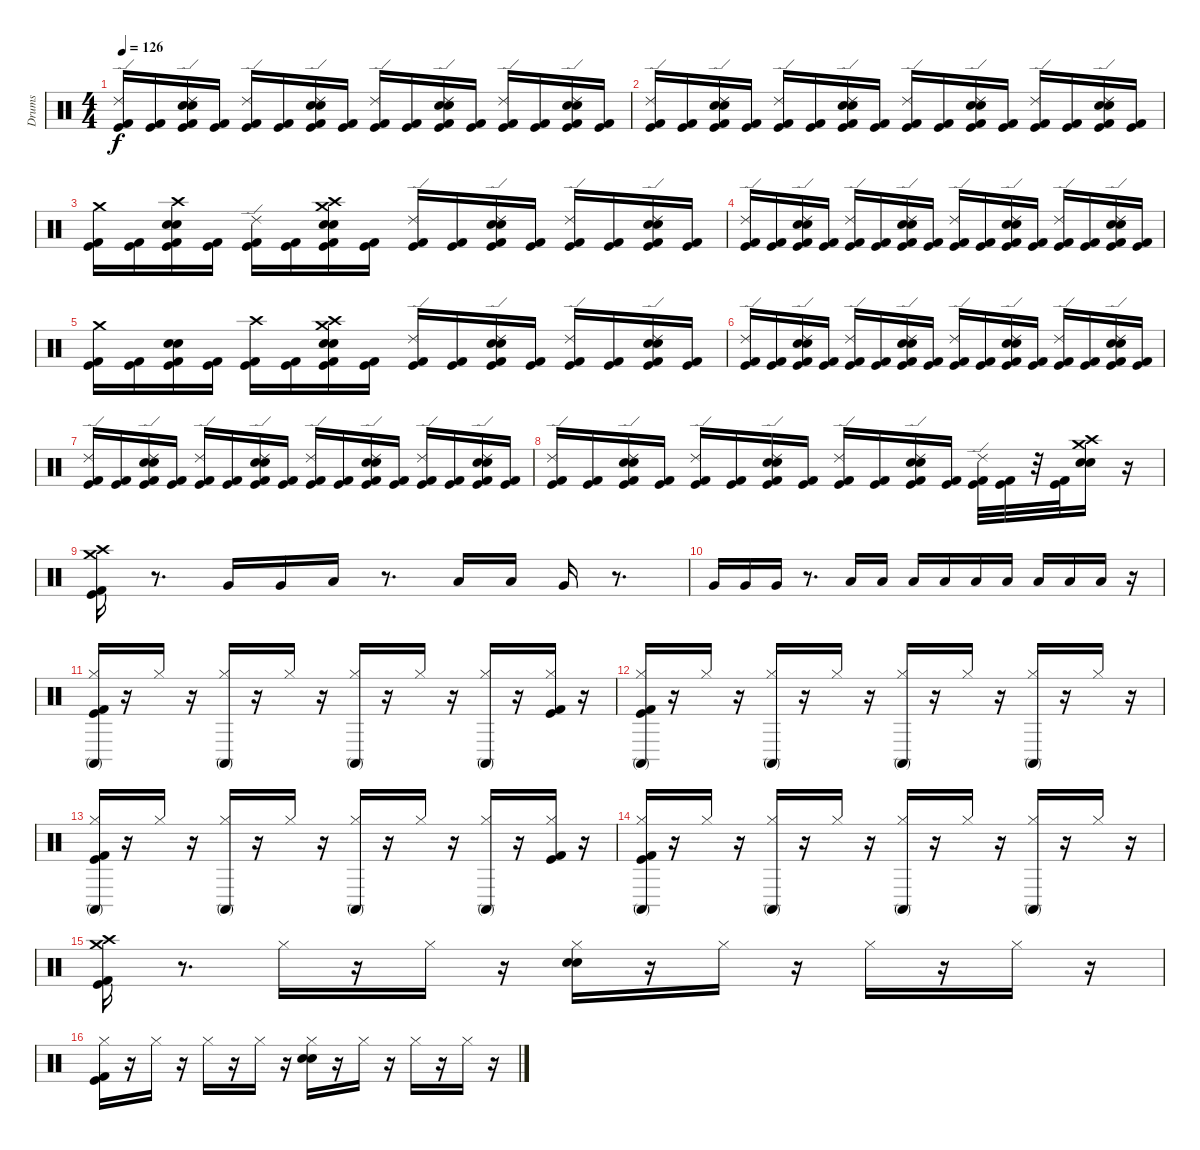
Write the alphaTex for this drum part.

\track ("Drums" "Drums") {instrument percussion}
\staff {score}
\articulation defaults
\ts (4 4)
\tempo 126
\clef neutral
\ks c
("Ride (edge) 2" "Kick (hit) 2" "Kick (hit)").16{dy f} ("Kick (hit) 2" "Kick (hit)").16 ("Electric Snare (hit)" "Snare (hit) 2" "Ride (edge) 2" "Kick (hit) 2" "Kick (hit)").16 ("Kick (hit) 2" "Kick (hit)").16 ("Ride (edge) 2" "Kick (hit) 2" "Kick (hit)").16 ("Kick (hit) 2" "Kick (hit)").16 ("Electric Snare (hit)" "Snare (hit) 2" "Ride (edge) 2" "Kick (hit) 2" "Kick (hit)").16 ("Kick (hit) 2" "Kick (hit)").16 ("Ride (edge) 2" "Kick (hit) 2" "Kick (hit)").16 ("Kick (hit) 2" "Kick (hit)").16 ("Electric Snare (hit)" "Snare (hit) 2" "Ride (edge) 2" "Kick (hit) 2" "Kick (hit)").16 ("Kick (hit) 2" "Kick (hit)").16 ("Ride (edge) 2" "Kick (hit) 2" "Kick (hit)").16 ("Kick (hit) 2" "Kick (hit)").16 ("Electric Snare (hit)" "Snare (hit) 2" "Ride (edge) 2" "Kick (hit) 2" "Kick (hit)").16 ("Kick (hit) 2" "Kick (hit)").16 |
("Ride (edge) 2" "Kick (hit) 2" "Kick (hit)").16 ("Kick (hit) 2" "Kick (hit)").16 ("Electric Snare (hit)" "Snare (hit) 2" "Ride (edge) 2" "Kick (hit) 2" "Kick (hit)").16 ("Kick (hit) 2" "Kick (hit)").16 ("Ride (edge) 2" "Kick (hit) 2" "Kick (hit)").16 ("Kick (hit) 2" "Kick (hit)").16 ("Electric Snare (hit)" "Snare (hit) 2" "Ride (edge) 2" "Kick (hit) 2" "Kick (hit)").16 ("Kick (hit) 2" "Kick (hit)").16 ("Ride (edge) 2" "Kick (hit) 2" "Kick (hit)").16 ("Kick (hit) 2" "Kick (hit)").16 ("Electric Snare (hit)" "Snare (hit) 2" "Ride (edge) 2" "Kick (hit) 2" "Kick (hit)").16 ("Kick (hit) 2" "Kick (hit)").16 ("Ride (edge) 2" "Kick (hit) 2" "Kick (hit)").16 ("Kick (hit) 2" "Kick (hit)").16 ("Electric Snare (hit)" "Snare (hit) 2" "Ride (edge) 2" "Kick (hit) 2" "Kick (hit)").16 ("Kick (hit) 2" "Kick (hit)").16 |
("Crash medium (hit)" "Kick (hit) 2" "Kick (hit)").16 ("Kick (hit) 2" "Kick (hit)").16 ("Crash high (hit)" "Electric Snare (hit)" "Snare (hit) 2" "Kick (hit) 2" "Kick (hit)").16 ("Kick (hit) 2" "Kick (hit)").16 ("Ride (edge) 2" "Kick (hit) 2" "Kick (hit)").16 ("Kick (hit) 2" "Kick (hit)").16 ("Crash high (hit)" "Crash medium (hit)" "Electric Snare (hit)" "Snare (hit) 2" "Kick (hit) 2" "Kick (hit)").16 ("Kick (hit) 2" "Kick (hit)").16 ("Ride (edge) 2" "Kick (hit) 2" "Kick (hit)").16 ("Kick (hit) 2" "Kick (hit)").16 ("Electric Snare (hit)" "Snare (hit) 2" "Ride (edge) 2" "Kick (hit) 2" "Kick (hit)").16 ("Kick (hit) 2" "Kick (hit)").16 ("Ride (edge) 2" "Kick (hit) 2" "Kick (hit)").16 ("Kick (hit) 2" "Kick (hit)").16 ("Electric Snare (hit)" "Snare (hit) 2" "Ride (edge) 2" "Kick (hit) 2" "Kick (hit)").16 ("Kick (hit) 2" "Kick (hit)").16 |
("Ride (edge) 2" "Kick (hit) 2" "Kick (hit)").16 ("Kick (hit) 2" "Kick (hit)").16 ("Electric Snare (hit)" "Snare (hit) 2" "Ride (edge) 2" "Kick (hit) 2" "Kick (hit)").16 ("Kick (hit) 2" "Kick (hit)").16 ("Ride (edge) 2" "Kick (hit) 2" "Kick (hit)").16 ("Kick (hit) 2" "Kick (hit)").16 ("Electric Snare (hit)" "Snare (hit) 2" "Ride (edge) 2" "Kick (hit) 2" "Kick (hit)").16 ("Kick (hit) 2" "Kick (hit)").16 ("Ride (edge) 2" "Kick (hit) 2" "Kick (hit)").16 ("Kick (hit) 2" "Kick (hit)").16 ("Electric Snare (hit)" "Snare (hit) 2" "Ride (edge) 2" "Kick (hit) 2" "Kick (hit)").16 ("Kick (hit) 2" "Kick (hit)").16 ("Ride (edge) 2" "Kick (hit) 2" "Kick (hit)").16 ("Kick (hit) 2" "Kick (hit)").16 ("Electric Snare (hit)" "Snare (hit) 2" "Ride (edge) 2" "Kick (hit) 2" "Kick (hit)").16 ("Kick (hit) 2" "Kick (hit)").16 |
("Crash medium (hit)" "Kick (hit) 2" "Kick (hit)").16 ("Kick (hit) 2" "Kick (hit)").16 ("Electric Snare (hit)" "Snare (hit) 2" "Kick (hit) 2" "Kick (hit)").16 ("Kick (hit) 2" "Kick (hit)").16 ("Crash high (hit)" "Kick (hit) 2" "Kick (hit)").16 ("Kick (hit) 2" "Kick (hit)").16 ("Crash high (hit)" "Crash medium (hit)" "Electric Snare (hit)" "Snare (hit) 2" "Kick (hit) 2" "Kick (hit)").16 ("Kick (hit) 2" "Kick (hit)").16 ("Ride (edge) 2" "Kick (hit) 2" "Kick (hit)").16 ("Kick (hit) 2" "Kick (hit)").16 ("Electric Snare (hit)" "Snare (hit) 2" "Ride (edge) 2" "Kick (hit) 2" "Kick (hit)").16 ("Kick (hit) 2" "Kick (hit)").16 ("Ride (edge) 2" "Kick (hit) 2" "Kick (hit)").16 ("Kick (hit) 2" "Kick (hit)").16 ("Electric Snare (hit)" "Snare (hit) 2" "Ride (edge) 2" "Kick (hit) 2" "Kick (hit)").16 ("Kick (hit) 2" "Kick (hit)").16 |
("Ride (edge) 2" "Kick (hit) 2" "Kick (hit)").16 ("Kick (hit) 2" "Kick (hit)").16 ("Electric Snare (hit)" "Snare (hit) 2" "Ride (edge) 2" "Kick (hit) 2" "Kick (hit)").16 ("Kick (hit) 2" "Kick (hit)").16 ("Ride (edge) 2" "Kick (hit) 2" "Kick (hit)").16 ("Kick (hit) 2" "Kick (hit)").16 ("Electric Snare (hit)" "Snare (hit) 2" "Ride (edge) 2" "Kick (hit) 2" "Kick (hit)").16 ("Kick (hit) 2" "Kick (hit)").16 ("Ride (edge) 2" "Kick (hit) 2" "Kick (hit)").16 ("Kick (hit) 2" "Kick (hit)").16 ("Electric Snare (hit)" "Snare (hit) 2" "Ride (edge) 2" "Kick (hit) 2" "Kick (hit)").16 ("Kick (hit) 2" "Kick (hit)").16 ("Ride (edge) 2" "Kick (hit) 2" "Kick (hit)").16 ("Kick (hit) 2" "Kick (hit)").16 ("Electric Snare (hit)" "Snare (hit) 2" "Ride (edge) 2" "Kick (hit) 2" "Kick (hit)").16 ("Kick (hit) 2" "Kick (hit)").16 |
("Ride (edge) 2" "Kick (hit) 2" "Kick (hit)").16 ("Kick (hit) 2" "Kick (hit)").16 ("Electric Snare (hit)" "Snare (hit) 2" "Ride (edge) 2" "Kick (hit) 2" "Kick (hit)").16 ("Kick (hit) 2" "Kick (hit)").16 ("Ride (edge) 2" "Kick (hit) 2" "Kick (hit)").16 ("Kick (hit) 2" "Kick (hit)").16 ("Electric Snare (hit)" "Snare (hit) 2" "Ride (edge) 2" "Kick (hit) 2" "Kick (hit)").16 ("Kick (hit) 2" "Kick (hit)").16 ("Ride (edge) 2" "Kick (hit) 2" "Kick (hit)").16 ("Kick (hit) 2" "Kick (hit)").16 ("Electric Snare (hit)" "Snare (hit) 2" "Ride (edge) 2" "Kick (hit) 2" "Kick (hit)").16 ("Kick (hit) 2" "Kick (hit)").16 ("Ride (edge) 2" "Kick (hit) 2" "Kick (hit)").16 ("Kick (hit) 2" "Kick (hit)").16 ("Electric Snare (hit)" "Snare (hit) 2" "Ride (edge) 2" "Kick (hit) 2" "Kick (hit)").16 ("Kick (hit) 2" "Kick (hit)").16 |
("Ride (edge) 2" "Kick (hit) 2" "Kick (hit)").16 ("Kick (hit) 2" "Kick (hit)").16 ("Electric Snare (hit)" "Snare (hit) 2" "Ride (edge) 2" "Kick (hit) 2" "Kick (hit)").16 ("Kick (hit) 2" "Kick (hit)").16 ("Ride (edge) 2" "Kick (hit) 2" "Kick (hit)").16 ("Kick (hit) 2" "Kick (hit)").16 ("Electric Snare (hit)" "Snare (hit) 2" "Ride (edge) 2" "Kick (hit) 2" "Kick (hit)").16 ("Kick (hit) 2" "Kick (hit)").16 ("Ride (edge) 2" "Kick (hit) 2" "Kick (hit)").16 ("Kick (hit) 2" "Kick (hit)").16 ("Electric Snare (hit)" "Snare (hit) 2" "Ride (edge) 2" "Kick (hit) 2" "Kick (hit)").16 ("Kick (hit) 2" "Kick (hit)").16 ("Ride (edge) 2" "Kick (hit) 2" "Kick (hit)").32 ("Kick (hit) 2" "Kick (hit)").32 r.32 ("Kick (hit) 2" "Kick (hit)").32 ("Electric Snare (hit)" "Snare (hit) 2" "Crash high (hit)" "Crash medium (hit)").16 r.16 |
("Crash high (hit)" "Crash medium (hit)" "Kick (hit) 2" "Kick (hit)").16 r.8{d} "Very Low Tom (hit)".16 "Very Low Tom (hit)".16 "Low Floor Tom (hit)".16 r.8{d} "Low Tom (hit)".16 "Low Tom (hit)".16 "Very Low Tom (hit)".16 r.8{d} |
"Very Low Tom (hit)".16 "Very Low Tom (hit)".16 "Very Low Tom (hit)".16 r.8{d} "Low Floor Tom (hit)".16 "Low Floor Tom (hit)".16 "Low Floor Tom (hit)".16 "Low Floor Tom (hit)".16 "Low Floor Tom (hit)".16 "Low Floor Tom (hit)".16 "Low Floor Tom (hit)".16 "Low Floor Tom (hit)".16 "Low Floor Tom (hit)".16 r.16 |
("Hi-Hat (closed)" "Conga high (mute)" "Kick (hit) 2" "Kick (hit)").16 r.16 "Hi-Hat (closed)".16 r.16 ("Hi-Hat (closed)" "Conga high (mute)").16 r.16 "Hi-Hat (closed)".16 r.16 ("Hi-Hat (closed)" "Conga high (mute)").16 r.16 "Hi-Hat (closed)".16 r.16 ("Hi-Hat (closed)" "Conga high (mute)").16 r.16 ("Kick (hit)" "Kick (hit) 2" "Hi-Hat (closed)").16 r.16 |
("Conga high (mute)" "Hi-Hat (closed)" "Kick (hit) 2" "Kick (hit)").16 r.16 "Hi-Hat (closed)".16 r.16 ("Conga high (mute)" "Hi-Hat (closed)").16 r.16 "Hi-Hat (closed)".16 r.16 ("Conga high (mute)" "Hi-Hat (closed)").16 r.16 "Hi-Hat (closed)".16 r.16 ("Conga high (mute)" "Hi-Hat (closed)").16 r.16 "Hi-Hat (closed)".16 r.16 |
("Hi-Hat (closed)" "Conga high (mute)" "Kick (hit) 2" "Kick (hit)").16 r.16 "Hi-Hat (closed)".16 r.16 ("Hi-Hat (closed)" "Conga high (mute)").16 r.16 "Hi-Hat (closed)".16 r.16 ("Hi-Hat (closed)" "Conga high (mute)").16 r.16 "Hi-Hat (closed)".16 r.16 ("Hi-Hat (closed)" "Conga high (mute)").16 r.16 ("Kick (hit)" "Kick (hit) 2" "Hi-Hat (closed)").16 r.16 |
("Conga high (mute)" "Hi-Hat (closed)" "Kick (hit) 2" "Kick (hit)").16 r.16 "Hi-Hat (closed)".16 r.16 ("Conga high (mute)" "Hi-Hat (closed)").16 r.16 "Hi-Hat (closed)".16 r.16 ("Conga high (mute)" "Hi-Hat (closed)").16 r.16 "Hi-Hat (closed)".16 r.16 ("Conga high (mute)" "Hi-Hat (closed)").16 r.16 "Hi-Hat (closed)".16 r.16 |
("Crash high (hit)" "Crash medium (hit)" "Kick (hit) 2" "Kick (hit)").16 r.8{d} "Hi-Hat (closed)".16 r.16 "Hi-Hat (closed)".16 r.16 ("Electric Snare (hit)" "Snare (hit) 2" "Hi-Hat (closed)").16 r.16 "Hi-Hat (closed)".16 r.16 "Hi-Hat (closed)".16 r.16 "Hi-Hat (closed)".16 r.16 |
("Hi-Hat (closed)" "Kick (hit) 2" "Kick (hit)").16 r.16 "Hi-Hat (closed)".16 r.16 "Hi-Hat (closed)".16 r.16 "Hi-Hat (closed)".16 r.16 ("Electric Snare (hit)" "Snare (hit) 2" "Hi-Hat (closed)").16 r.16 "Hi-Hat (closed)".16 r.16 "Hi-Hat (closed)".16 r.16 "Hi-Hat (closed)".16 r.16
